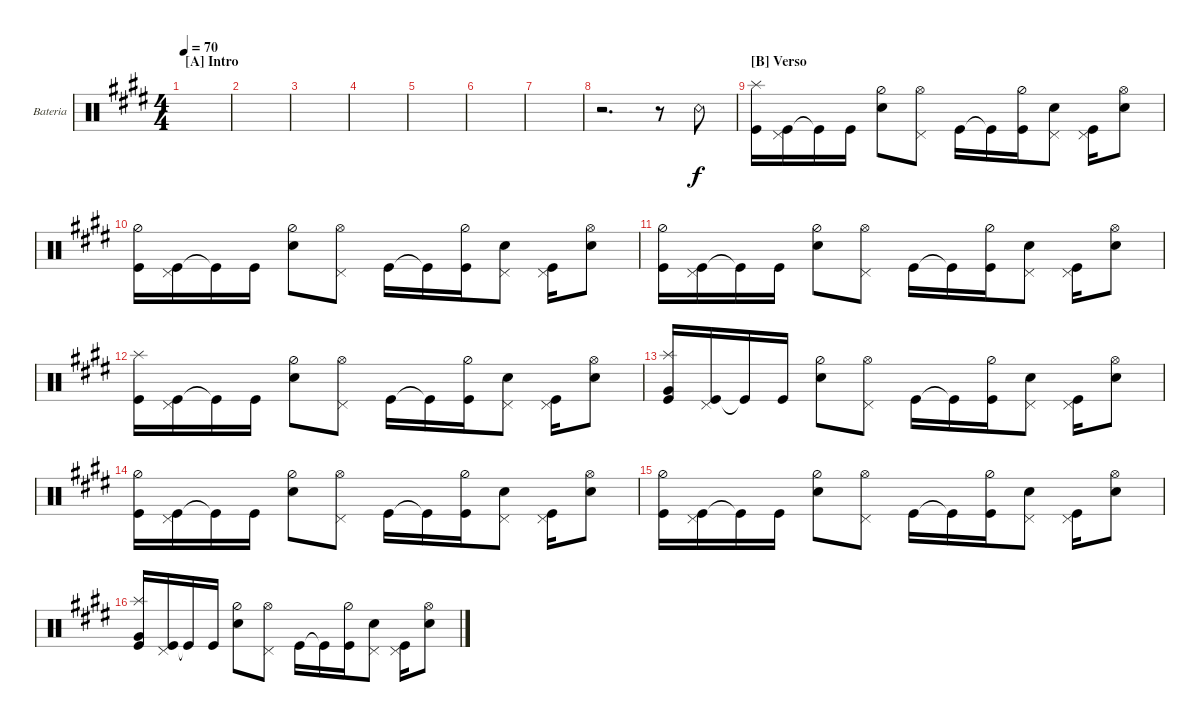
\defaultSystemsLayout 4
\bracketExtendMode groupsimilarinstruments
\firstSystemTrackNameOrientation horizontal
\otherSystemsTrackNameOrientation horizontal
\track ("Bateria" "Bateria") {instrument percussion}
\staff {score}
\articulation defaults
\ts (4 4)
\section ("A" "Intro")
\tempo 70
\clef neutral
\scale
0.7
\ks e
|
\scale
0.3 |
\scale
0.5 |
\scale
0.5 |
\scale
0.5 |
\scale
0.5 |
\scale
0.5 |
\scale
0.5 r.2{d} r.8 "Snare (rim shot)".8 |
\section ("B" "Verso")
\scale
0.5 ("Kick (hit)" "Splash (hit)").16 ("Kick (hit)" "Pedal Hi-Hat (hit)").16 "Kick (hit)"{t}.16 "Kick (hit)".16 ("Snare (hit) 2" "Hi-Hat (half)").8 ("Hi-Hat (open)" "Pedal Hi-Hat (hit)").8 "Kick (hit)".16 "Kick (hit)"{t}.16 ("Kick (hit)" "Hi-Hat (half)").16 ("Snare (hit) 2" "Pedal Hi-Hat (hit)").8 ("Kick (hit)" "Pedal Hi-Hat (hit)").16 ("Snare (hit) 2" "Hi-Hat (open)").8 |
\scale
0.5 ("Kick (hit)" "Hi-Hat (half)").16 ("Kick (hit)" "Pedal Hi-Hat (hit)").16 "Kick (hit)"{t}.16 "Kick (hit)".16 ("Snare (hit) 2" "Hi-Hat (half)").8 ("Hi-Hat (open)" "Pedal Hi-Hat (hit)").8 "Kick (hit)".16 "Kick (hit)"{t}.16 ("Kick (hit)" "Hi-Hat (half)").16 ("Snare (hit) 2" "Pedal Hi-Hat (hit)").8 ("Kick (hit)" "Pedal Hi-Hat (hit)").16 ("Snare (hit) 2" "Hi-Hat (open)").8 |
\scale
0.5 ("Kick (hit)" "Hi-Hat (half)").16 ("Kick (hit)" "Pedal Hi-Hat (hit)").16 "Kick (hit)"{t}.16 "Kick (hit)".16 ("Snare (hit) 2" "Hi-Hat (half)").8 ("Hi-Hat (open)" "Pedal Hi-Hat (hit)").8 "Kick (hit)".16 "Kick (hit)"{t}.16 ("Kick (hit)" "Hi-Hat (half)").16 ("Snare (hit) 2" "Pedal Hi-Hat (hit)").8 ("Kick (hit)" "Pedal Hi-Hat (hit)").16 ("Snare (hit) 2" "Hi-Hat (open)").8 |
\scale
0.5 ("Kick (hit)" "Splash (hit)").16 ("Kick (hit)" "Pedal Hi-Hat (hit)").16 "Kick (hit)"{t}.16 "Kick (hit)".16 ("Snare (hit) 2" "Hi-Hat (half)").8 ("Hi-Hat (open)" "Pedal Hi-Hat (hit)").8 "Kick (hit)".16 "Kick (hit)"{t}.16 ("Kick (hit)" "Hi-Hat (half)").16 ("Snare (hit) 2" "Pedal Hi-Hat (hit)").8 ("Kick (hit)" "Pedal Hi-Hat (hit)").16 ("Snare (hit) 2" "Hi-Hat (open)").8 |
\scale
0.5 ("Kick (hit)" "Very Low Tom (hit)" "Splash (hit)").16 ("Kick (hit)" "Pedal Hi-Hat (hit)").16 "Kick (hit)"{t}.16 "Kick (hit)".16 ("Snare (hit) 2" "Hi-Hat (half)").8 ("Hi-Hat (open)" "Pedal Hi-Hat (hit)").8 "Kick (hit)".16 "Kick (hit)"{t}.16 ("Kick (hit)" "Hi-Hat (half)").16 ("Snare (hit) 2" "Pedal Hi-Hat (hit)").8 ("Kick (hit)" "Pedal Hi-Hat (hit)").16 ("Snare (hit) 2" "Hi-Hat (open)").8 |
\scale
0.5 ("Kick (hit)" "Hi-Hat (half)").16 ("Kick (hit)" "Pedal Hi-Hat (hit)").16 "Kick (hit)"{t}.16 "Kick (hit)".16 ("Snare (hit) 2" "Hi-Hat (half)").8 ("Hi-Hat (open)" "Pedal Hi-Hat (hit)").8 "Kick (hit)".16 "Kick (hit)"{t}.16 ("Kick (hit)" "Hi-Hat (half)").16 ("Snare (hit) 2" "Pedal Hi-Hat (hit)").8 ("Kick (hit)" "Pedal Hi-Hat (hit)").16 ("Snare (hit) 2" "Hi-Hat (open)").8 |
\scale
0.5 ("Kick (hit)" "Hi-Hat (half)").16 ("Kick (hit)" "Pedal Hi-Hat (hit)").16 "Kick (hit)"{t}.16 "Kick (hit)".16 ("Snare (hit) 2" "Hi-Hat (half)").8 ("Hi-Hat (open)" "Pedal Hi-Hat (hit)").8 "Kick (hit)".16 "Kick (hit)"{t}.16 ("Kick (hit)" "Hi-Hat (half)").16 ("Snare (hit) 2" "Pedal Hi-Hat (hit)").8 ("Kick (hit)" "Pedal Hi-Hat (hit)").16 ("Snare (hit) 2" "Hi-Hat (open)").8 |
("Kick (hit)" "Very Low Tom (hit)" "Splash (hit)").16 ("Kick (hit)" "Pedal Hi-Hat (hit)").16 "Kick (hit)"{t}.16 "Kick (hit)".16 ("Snare (hit) 2" "Hi-Hat (half)").8 ("Hi-Hat (open)" "Pedal Hi-Hat (hit)").8 "Kick (hit)".16 "Kick (hit)"{t}.16 ("Kick (hit)" "Hi-Hat (half)").16 ("Snare (hit) 2" "Pedal Hi-Hat (hit)").8 ("Kick (hit)" "Pedal Hi-Hat (hit)").16 ("Snare (hit) 2" "Hi-Hat (open)").8
